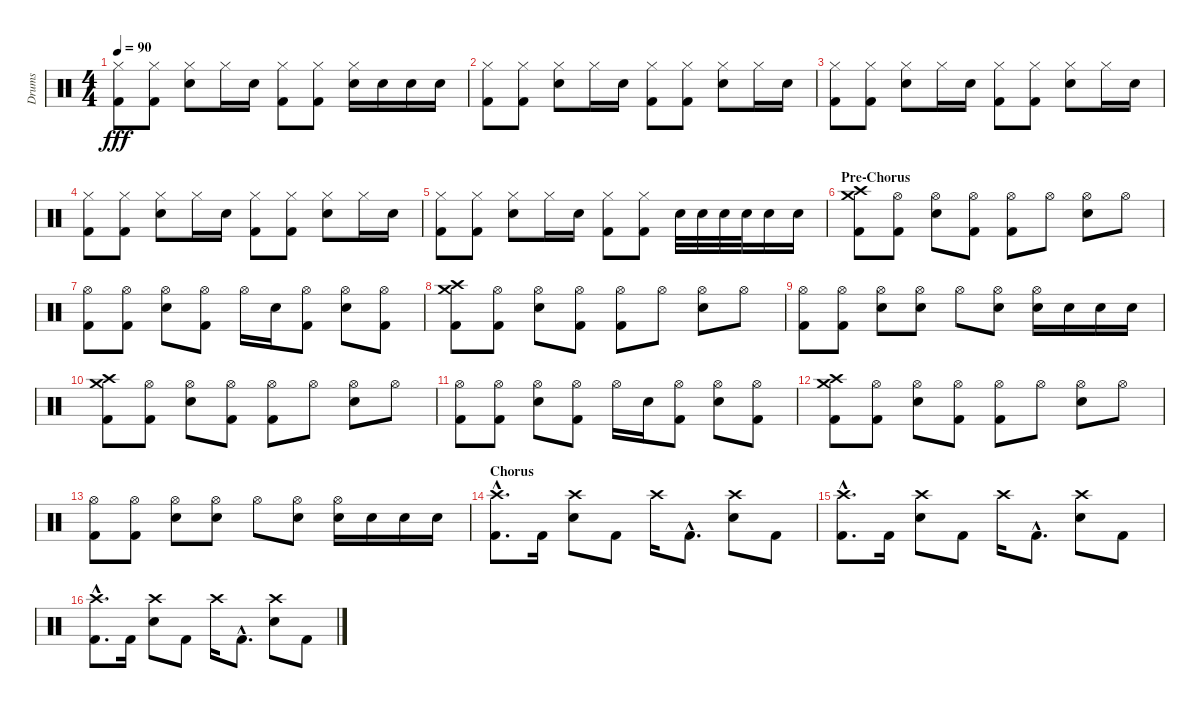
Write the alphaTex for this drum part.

\track ("Drums" "Drums") {instrument percussion}
\staff {score}
\articulation defaults
\ts (4 4)
\tempo 90
\clef neutral
\ks c
("Hi-Hat (closed)" "Kick (hit) 2").8{dy fff} ("Hi-Hat (closed)" "Kick (hit) 2").8 ("Hi-Hat (closed)" "Electric Snare (hit)").8 "Hi-Hat (closed)".16 "Electric Snare (hit)".16 ("Hi-Hat (closed)" "Kick (hit) 2").8 ("Hi-Hat (closed)" "Kick (hit) 2").8 ("Hi-Hat (closed)" "Electric Snare (hit)").16 "Electric Snare (hit)".16 "Electric Snare (hit)".16 "Electric Snare (hit)".16 |
("Hi-Hat (closed)" "Kick (hit) 2").8 ("Hi-Hat (closed)" "Kick (hit) 2").8 ("Hi-Hat (closed)" "Electric Snare (hit)").8 "Hi-Hat (closed)".16 "Electric Snare (hit)".16 ("Hi-Hat (closed)" "Kick (hit) 2").8 ("Hi-Hat (closed)" "Kick (hit) 2").8 ("Hi-Hat (closed)" "Electric Snare (hit)").8 "Hi-Hat (closed)".16 "Electric Snare (hit)".16 |
("Hi-Hat (closed)" "Kick (hit) 2").8 ("Hi-Hat (closed)" "Kick (hit) 2").8 ("Hi-Hat (closed)" "Electric Snare (hit)").8 "Hi-Hat (closed)".16 "Electric Snare (hit)".16 ("Hi-Hat (closed)" "Kick (hit) 2").8 ("Hi-Hat (closed)" "Kick (hit) 2").8 ("Hi-Hat (closed)" "Electric Snare (hit)").8 "Hi-Hat (closed)".16 "Electric Snare (hit)".16 |
("Hi-Hat (closed)" "Kick (hit) 2").8 ("Hi-Hat (closed)" "Kick (hit) 2").8 ("Hi-Hat (closed)" "Electric Snare (hit)").8 "Hi-Hat (closed)".16 "Electric Snare (hit)".16 ("Hi-Hat (closed)" "Kick (hit) 2").8 ("Hi-Hat (closed)" "Kick (hit) 2").8 ("Hi-Hat (closed)" "Electric Snare (hit)").8 "Hi-Hat (closed)".16 "Electric Snare (hit)".16 |
("Hi-Hat (closed)" "Kick (hit) 2").8 ("Hi-Hat (closed)" "Kick (hit) 2").8 ("Hi-Hat (closed)" "Electric Snare (hit)").8 "Hi-Hat (closed)".16 "Electric Snare (hit)".16 ("Hi-Hat (closed)" "Kick (hit) 2").8 ("Hi-Hat (closed)" "Kick (hit) 2").8 "Electric Snare (hit)".32 "Electric Snare (hit)".32 "Electric Snare (hit)".32 "Electric Snare (hit)".32 "Electric Snare (hit)".16 "Electric Snare (hit)".16 |
\section ("" "Pre-Chorus")
("Crash high (hit)" "Crash medium (hit)" "Kick (hit) 2").8 ("Hi-Hat (open)" "Kick (hit) 2").8 ("Hi-Hat (open)" "Electric Snare (hit)").8 ("Hi-Hat (open)" "Kick (hit) 2").8 ("Hi-Hat (open)" "Kick (hit) 2").8 "Hi-Hat (open)".8 ("Hi-Hat (open)" "Electric Snare (hit)").8 "Hi-Hat (open)".8 |
("Hi-Hat (open)" "Kick (hit) 2").8 ("Hi-Hat (open)" "Kick (hit) 2").8 ("Hi-Hat (open)" "Electric Snare (hit)").8 ("Hi-Hat (open)" "Kick (hit) 2").8 "Hi-Hat (open)".16 "Electric Snare (hit)".16 ("Hi-Hat (open)" "Kick (hit) 2").8 ("Hi-Hat (open)" "Electric Snare (hit)").8 ("Hi-Hat (open)" "Kick (hit) 2").8 |
("Crash high (hit)" "Crash medium (hit)" "Kick (hit) 2").8 ("Hi-Hat (open)" "Kick (hit) 2").8 ("Hi-Hat (open)" "Electric Snare (hit)").8 ("Hi-Hat (open)" "Kick (hit) 2").8 ("Hi-Hat (open)" "Kick (hit) 2").8 "Hi-Hat (open)".8 ("Hi-Hat (open)" "Electric Snare (hit)").8 "Hi-Hat (open)".8 |
("Hi-Hat (open)" "Kick (hit) 2").8 ("Hi-Hat (open)" "Kick (hit) 2").8 ("Hi-Hat (open)" "Electric Snare (hit)").8 ("Hi-Hat (open)" "Electric Snare (hit)").8 "Hi-Hat (open)".8 ("Hi-Hat (open)" "Electric Snare (hit)").8 ("Hi-Hat (open)" "Electric Snare (hit)").16 "Electric Snare (hit)".16 "Electric Snare (hit)".16 "Electric Snare (hit)".16 |
("Crash high (hit)" "Crash medium (hit)" "Kick (hit) 2").8 ("Hi-Hat (open)" "Kick (hit) 2").8 ("Hi-Hat (open)" "Electric Snare (hit)").8 ("Hi-Hat (open)" "Kick (hit) 2").8 ("Hi-Hat (open)" "Kick (hit) 2").8 "Hi-Hat (open)".8 ("Hi-Hat (open)" "Electric Snare (hit)").8 "Hi-Hat (open)".8 |
("Hi-Hat (open)" "Kick (hit) 2").8 ("Hi-Hat (open)" "Kick (hit) 2").8 ("Hi-Hat (open)" "Electric Snare (hit)").8 ("Hi-Hat (open)" "Kick (hit) 2").8 "Hi-Hat (open)".16 "Electric Snare (hit)".16 ("Hi-Hat (open)" "Kick (hit) 2").8 ("Hi-Hat (open)" "Electric Snare (hit)").8 ("Hi-Hat (open)" "Kick (hit) 2").8 |
("Crash high (hit)" "Crash medium (hit)" "Kick (hit) 2").8 ("Hi-Hat (open)" "Kick (hit) 2").8 ("Hi-Hat (open)" "Electric Snare (hit)").8 ("Hi-Hat (open)" "Kick (hit) 2").8 ("Hi-Hat (open)" "Kick (hit) 2").8 "Hi-Hat (open)".8 ("Hi-Hat (open)" "Electric Snare (hit)").8 "Hi-Hat (open)".8 |
("Hi-Hat (open)" "Kick (hit) 2").8 ("Hi-Hat (open)" "Kick (hit) 2").8 ("Hi-Hat (open)" "Electric Snare (hit)").8 ("Hi-Hat (open)" "Electric Snare (hit)").8 "Hi-Hat (open)".8 ("Hi-Hat (open)" "Electric Snare (hit)").8 ("Hi-Hat (open)" "Electric Snare (hit)").16 "Electric Snare (hit)".16 "Electric Snare (hit)".16 "Electric Snare (hit)".16 |
\section ("" "Chorus")
("Crash high (hit)"{hac} "Kick (hit) 2"{hac}).8{d} "Kick (hit) 2".16 ("Crash high (hit)" "Electric Snare (hit)").8 "Kick (hit) 2".8 "Crash high (hit)".16 "Kick (hit) 2"{hac}.8{d} ("Crash high (hit)" "Electric Snare (hit)").8 "Kick (hit) 2".8 |
("Crash high (hit)"{hac} "Kick (hit) 2"{hac}).8{d} "Kick (hit) 2".16 ("Crash high (hit)" "Electric Snare (hit)").8 "Kick (hit) 2".8 "Crash high (hit)".16 "Kick (hit) 2"{hac}.8{d} ("Crash high (hit)" "Electric Snare (hit)").8 "Kick (hit) 2".8 |
("Crash high (hit)"{hac} "Kick (hit) 2"{hac}).8{d} "Kick (hit) 2".16 ("Crash high (hit)" "Electric Snare (hit)").8 "Kick (hit) 2".8 "Crash high (hit)".16 "Kick (hit) 2"{hac}.8{d} ("Crash high (hit)" "Electric Snare (hit)").8 "Kick (hit) 2".8
